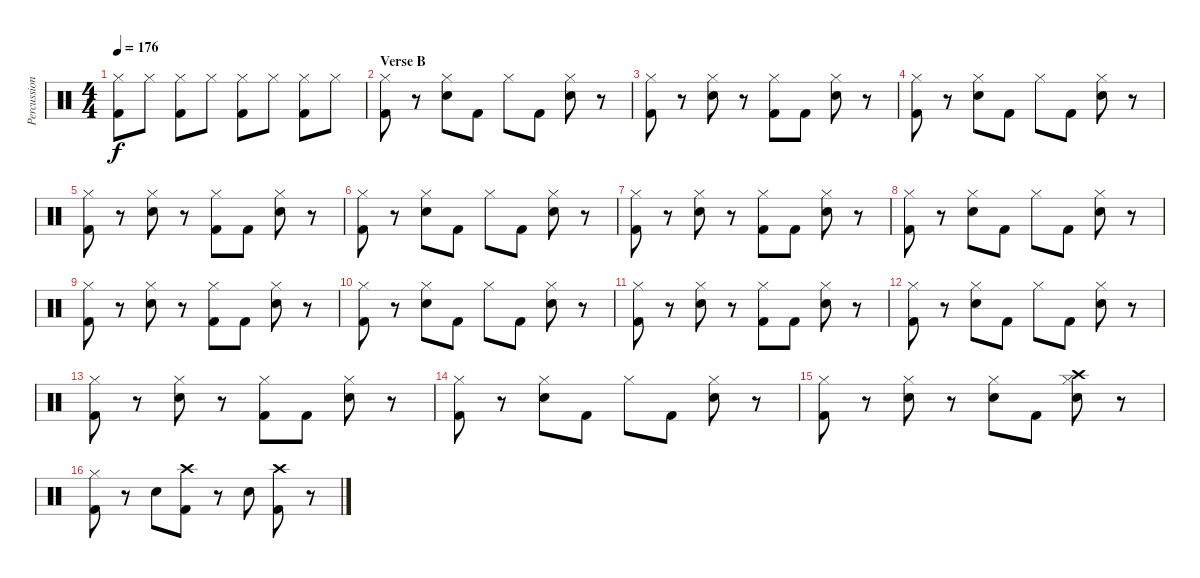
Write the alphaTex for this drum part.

\track ("Percussion" "Percussion") {instrument percussion}
\staff {score}
\articulation defaults
\ts (4 4)
\tempo 176
\clef neutral
\ks c
("Hi-Hat (closed)" "Kick (hit) 2").8{dy f} "Hi-Hat (closed)".8 ("Hi-Hat (closed)" "Kick (hit) 2").8 "Hi-Hat (closed)".8 ("Hi-Hat (closed)" "Kick (hit) 2").8 "Hi-Hat (closed)".8 ("Hi-Hat (closed)" "Kick (hit) 2").8 "Hi-Hat (closed)".8 |
\section ("" "Verse B")
("Hi-Hat (closed)" "Kick (hit) 2").8 r.8 ("Hi-Hat (closed)" "Snare (hit) 2").8 "Kick (hit) 2".8 "Hi-Hat (closed)".8 "Kick (hit) 2".8 ("Hi-Hat (closed)" "Snare (hit) 2").8 r.8 |
("Hi-Hat (closed)" "Kick (hit) 2").8 r.8 ("Hi-Hat (closed)" "Snare (hit) 2").8 r.8 ("Hi-Hat (closed)" "Kick (hit) 2").8 "Kick (hit) 2".8 ("Hi-Hat (closed)" "Snare (hit) 2").8 r.8 |
("Hi-Hat (closed)" "Kick (hit) 2").8 r.8 ("Hi-Hat (closed)" "Snare (hit) 2").8 "Kick (hit) 2".8 "Hi-Hat (closed)".8 "Kick (hit) 2".8 ("Hi-Hat (closed)" "Snare (hit) 2").8 r.8 |
("Hi-Hat (closed)" "Kick (hit) 2").8 r.8 ("Hi-Hat (closed)" "Snare (hit) 2").8 r.8 ("Hi-Hat (closed)" "Kick (hit) 2").8 "Kick (hit) 2".8 ("Hi-Hat (closed)" "Snare (hit) 2").8 r.8 |
("Hi-Hat (closed)" "Kick (hit) 2").8 r.8 ("Hi-Hat (closed)" "Snare (hit) 2").8 "Kick (hit) 2".8 "Hi-Hat (closed)".8 "Kick (hit) 2".8 ("Hi-Hat (closed)" "Snare (hit) 2").8 r.8 |
("Hi-Hat (closed)" "Kick (hit) 2").8 r.8 ("Hi-Hat (closed)" "Snare (hit) 2").8 r.8 ("Hi-Hat (closed)" "Kick (hit) 2").8 "Kick (hit) 2".8 ("Hi-Hat (closed)" "Snare (hit) 2").8 r.8 |
("Hi-Hat (closed)" "Kick (hit) 2").8 r.8 ("Hi-Hat (closed)" "Snare (hit) 2").8 "Kick (hit) 2".8 "Hi-Hat (closed)".8 "Kick (hit) 2".8 ("Hi-Hat (closed)" "Snare (hit) 2").8 r.8 |
("Hi-Hat (closed)" "Kick (hit) 2").8 r.8 ("Hi-Hat (closed)" "Snare (hit) 2").8 r.8 ("Hi-Hat (closed)" "Kick (hit) 2").8 "Kick (hit) 2".8 ("Hi-Hat (closed)" "Snare (hit) 2").8 r.8 |
("Hi-Hat (closed)" "Kick (hit) 2").8 r.8 ("Hi-Hat (closed)" "Snare (hit) 2").8 "Kick (hit) 2".8 "Hi-Hat (closed)".8 "Kick (hit) 2".8 ("Hi-Hat (closed)" "Snare (hit) 2").8 r.8 |
("Hi-Hat (closed)" "Kick (hit) 2").8 r.8 ("Hi-Hat (closed)" "Snare (hit) 2").8 r.8 ("Hi-Hat (closed)" "Kick (hit) 2").8 "Kick (hit) 2".8 ("Hi-Hat (closed)" "Snare (hit) 2").8 r.8 |
("Hi-Hat (closed)" "Kick (hit) 2").8 r.8 ("Hi-Hat (closed)" "Snare (hit) 2").8 "Kick (hit) 2".8 "Hi-Hat (closed)".8 "Kick (hit) 2".8 ("Hi-Hat (closed)" "Snare (hit) 2").8 r.8 |
("Hi-Hat (closed)" "Kick (hit) 2").8 r.8 ("Hi-Hat (closed)" "Snare (hit) 2").8 r.8 ("Hi-Hat (closed)" "Kick (hit) 2").8 "Kick (hit) 2".8 ("Hi-Hat (closed)" "Snare (hit) 2").8 r.8 |
("Hi-Hat (closed)" "Kick (hit) 2").8 r.8 ("Hi-Hat (closed)" "Snare (hit) 2").8 "Kick (hit) 2".8 "Hi-Hat (closed)".8 "Kick (hit) 2".8 ("Hi-Hat (closed)" "Snare (hit) 2").8 r.8 |
("Hi-Hat (closed)" "Kick (hit) 2").8 r.8 ("Hi-Hat (closed)" "Snare (hit) 2").8 r.8 ("Hi-Hat (closed)" "Snare (hit) 2").8 "Kick (hit) 2".8 ("Crash high (hit)" "Hi-Hat (closed)" "Snare (hit) 2").8 r.8 |
("Hi-Hat (closed)" "Kick (hit) 2").8 r.8 "Snare (hit) 2".8 ("Crash high (hit)" "Kick (hit) 2").8 r.8 "Snare (hit) 2".8 ("Crash high (hit)" "Kick (hit) 2").8 r.8
